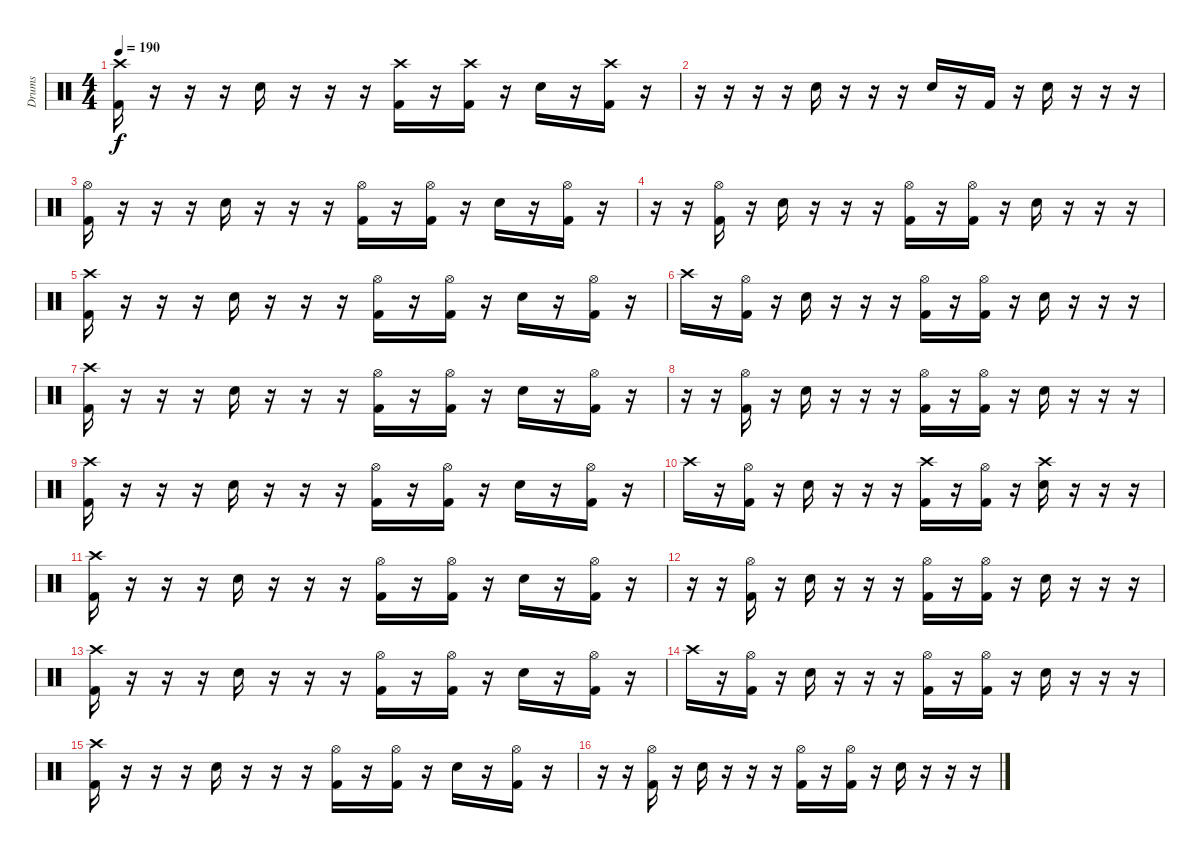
\track ("Drums" "Drums") {instrument percussion}
\staff {score}
\articulation defaults
\ts (4 4)
\tempo 190
\clef neutral
\ks c
("Crash high (hit)" "Kick (hit) 2").16{dy f} r.16 r.16 r.16 "Snare (hit) 2".16 r.16 r.16 r.16 ("Crash high (hit)" "Kick (hit) 2").16 r.16 ("Crash high (hit)" "Kick (hit) 2").16 r.16 "Snare (hit) 2".16 r.16 ("Crash high (hit)" "Kick (hit) 2").16 r.16 |
r.16 r.16 r.16 r.16 "Snare (hit) 2".16 r.16 r.16 r.16 "Snare (hit) 2".16 r.16 "Kick (hit) 2".16 r.16 "Snare (hit) 2".16 r.16 r.16 r.16 |
("Hi-Hat (open)" "Kick (hit) 2").16 r.16 r.16 r.16 "Snare (hit) 2".16 r.16 r.16 r.16 ("Hi-Hat (open)" "Kick (hit) 2").16 r.16 ("Hi-Hat (open)" "Kick (hit) 2").16 r.16 "Snare (hit) 2".16 r.16 ("Hi-Hat (open)" "Kick (hit) 2").16 r.16 |
r.16 r.16 ("Hi-Hat (open)" "Kick (hit) 2").16 r.16 "Snare (hit) 2".16 r.16 r.16 r.16 ("Hi-Hat (open)" "Kick (hit) 2").16 r.16 ("Hi-Hat (open)" "Kick (hit) 2").16 r.16 "Snare (hit) 2".16 r.16 r.16 r.16 |
("Crash high (hit)" "Kick (hit) 2").16 r.16 r.16 r.16 "Snare (hit) 2".16 r.16 r.16 r.16 ("Hi-Hat (open)" "Kick (hit) 2").16 r.16 ("Hi-Hat (open)" "Kick (hit) 2").16 r.16 "Snare (hit) 2".16 r.16 ("Hi-Hat (open)" "Kick (hit) 2").16 r.16 |
"Crash high (hit)".16 r.16 ("Hi-Hat (open)" "Kick (hit) 2").16 r.16 "Snare (hit) 2".16 r.16 r.16 r.16 ("Hi-Hat (open)" "Kick (hit) 2").16 r.16 ("Hi-Hat (open)" "Kick (hit) 2").16 r.16 "Snare (hit) 2".16 r.16 r.16 r.16 |
("Crash high (hit)" "Kick (hit) 2").16 r.16 r.16 r.16 "Snare (hit) 2".16 r.16 r.16 r.16 ("Hi-Hat (open)" "Kick (hit) 2").16 r.16 ("Hi-Hat (open)" "Kick (hit) 2").16 r.16 "Snare (hit) 2".16 r.16 ("Hi-Hat (open)" "Kick (hit) 2").16 r.16 |
r.16 r.16 ("Hi-Hat (open)" "Kick (hit) 2").16 r.16 "Snare (hit) 2".16 r.16 r.16 r.16 ("Hi-Hat (open)" "Kick (hit) 2").16 r.16 ("Hi-Hat (open)" "Kick (hit) 2").16 r.16 "Snare (hit) 2".16 r.16 r.16 r.16 |
("Crash high (hit)" "Kick (hit) 2").16 r.16 r.16 r.16 "Snare (hit) 2".16 r.16 r.16 r.16 ("Hi-Hat (open)" "Kick (hit) 2").16 r.16 ("Hi-Hat (open)" "Kick (hit) 2").16 r.16 "Snare (hit) 2".16 r.16 ("Hi-Hat (open)" "Kick (hit) 2").16 r.16 |
"Crash high (hit)".16 r.16 ("Hi-Hat (open)" "Kick (hit) 2").16 r.16 "Snare (hit) 2".16 r.16 r.16 r.16 ("Crash high (hit)" "Kick (hit) 2").16 r.16 ("Hi-Hat (open)" "Kick (hit) 2").16 r.16 ("Crash high (hit)" "Snare (hit) 2").16 r.16 r.16 r.16 |
("Crash high (hit)" "Kick (hit) 2").16 r.16 r.16 r.16 "Snare (hit) 2".16 r.16 r.16 r.16 ("Hi-Hat (open)" "Kick (hit) 2").16 r.16 ("Hi-Hat (open)" "Kick (hit) 2").16 r.16 "Snare (hit) 2".16 r.16 ("Hi-Hat (open)" "Kick (hit) 2").16 r.16 |
r.16 r.16 ("Hi-Hat (open)" "Kick (hit) 2").16 r.16 "Snare (hit) 2".16 r.16 r.16 r.16 ("Hi-Hat (open)" "Kick (hit) 2").16 r.16 ("Hi-Hat (open)" "Kick (hit) 2").16 r.16 "Snare (hit) 2".16 r.16 r.16 r.16 |
("Crash high (hit)" "Kick (hit) 2").16 r.16 r.16 r.16 "Snare (hit) 2".16 r.16 r.16 r.16 ("Hi-Hat (open)" "Kick (hit) 2").16 r.16 ("Hi-Hat (open)" "Kick (hit) 2").16 r.16 "Snare (hit) 2".16 r.16 ("Hi-Hat (open)" "Kick (hit) 2").16 r.16 |
"Crash high (hit)".16 r.16 ("Hi-Hat (open)" "Kick (hit) 2").16 r.16 "Snare (hit) 2".16 r.16 r.16 r.16 ("Hi-Hat (open)" "Kick (hit) 2").16 r.16 ("Hi-Hat (open)" "Kick (hit) 2").16 r.16 "Snare (hit) 2".16 r.16 r.16 r.16 |
("Crash high (hit)" "Kick (hit) 2").16 r.16 r.16 r.16 "Snare (hit) 2".16 r.16 r.16 r.16 ("Hi-Hat (open)" "Kick (hit) 2").16 r.16 ("Hi-Hat (open)" "Kick (hit) 2").16 r.16 "Snare (hit) 2".16 r.16 ("Hi-Hat (open)" "Kick (hit) 2").16 r.16 |
r.16 r.16 ("Hi-Hat (open)" "Kick (hit) 2").16 r.16 "Snare (hit) 2".16 r.16 r.16 r.16 ("Hi-Hat (open)" "Kick (hit) 2").16 r.16 ("Hi-Hat (open)" "Kick (hit) 2").16 r.16 "Snare (hit) 2".16 r.16 r.16 r.16
